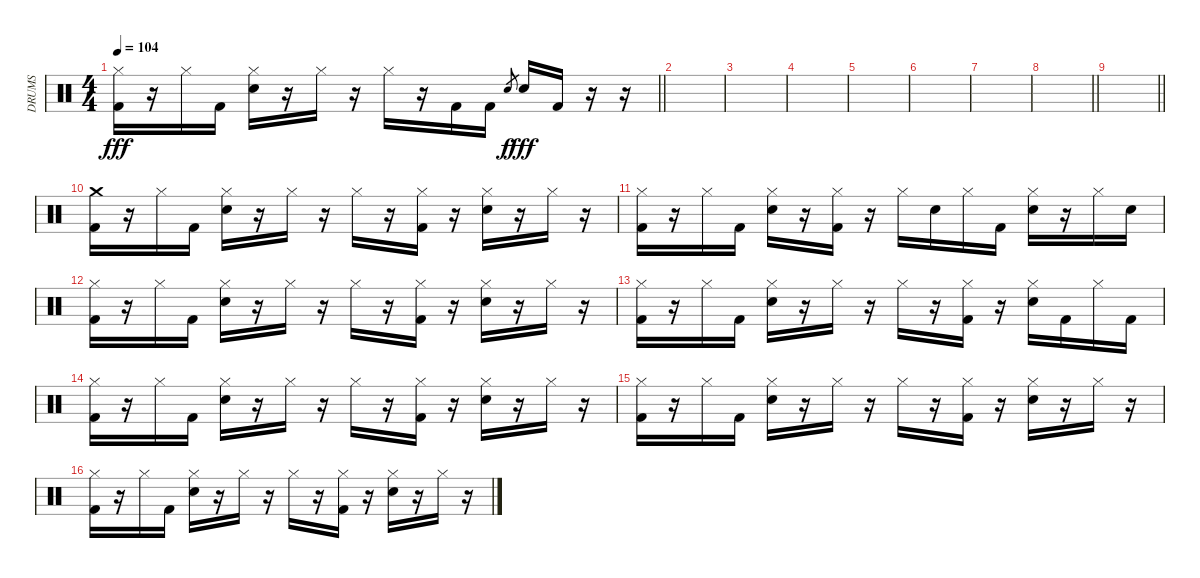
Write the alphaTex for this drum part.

\track ("DRUMS" "DRUMS") {instrument percussion}
\staff {score}
\articulation defaults
\ts (4 4)
\tempo 104
\clef neutral
\barLineRight lightlight
\ks c
("Hi-Hat (closed)" "Kick (hit) 2").16{dy fff} r.16 "Hi-Hat (closed)".16 "Kick (hit) 2".16 ("Hi-Hat (closed)" "Snare (hit) 2").16 r.16 "Hi-Hat (closed)".16 r.16 "Hi-Hat (closed)".16 r.16 "Kick (hit) 2".16 "Kick (hit) 2".16 "Snare (hit) 2".8{gr dy f} "Snare (hit) 2".16{dy fff} "Kick (hit) 2".16 r.16 r.16 |
\section ("" "")
|
|
|
|
|
|
\barLineRight lightlight
|
\barLineRight lightlight
|
\section ("" "")
("Crash medium (hit)" "Kick (hit) 2").16 r.16 "Hi-Hat (closed)".16 "Kick (hit) 2".16 ("Hi-Hat (closed)" "Snare (hit) 2").16 r.16 "Hi-Hat (closed)".16 r.16 "Hi-Hat (closed)".16 r.16 ("Hi-Hat (closed)" "Kick (hit) 2").16 r.16 ("Hi-Hat (closed)" "Snare (hit) 2").16 r.16 "Hi-Hat (closed)".16 r.16 |
("Hi-Hat (closed)" "Kick (hit) 2").16 r.16 "Hi-Hat (closed)".16 "Kick (hit) 2".16 ("Hi-Hat (closed)" "Snare (hit) 2").16 r.16 ("Hi-Hat (closed)" "Kick (hit) 2").16 r.16 "Hi-Hat (closed)".16 "Snare (hit) 2".16 "Hi-Hat (closed)".16 "Kick (hit) 2".16 ("Hi-Hat (closed)" "Snare (hit) 2").16 r.16 "Hi-Hat (closed)".16 "Snare (hit) 2".16 |
("Hi-Hat (closed)" "Kick (hit) 2").16 r.16 "Hi-Hat (closed)".16 "Kick (hit) 2".16 ("Hi-Hat (closed)" "Snare (hit) 2").16 r.16 "Hi-Hat (closed)".16 r.16 "Hi-Hat (closed)".16 r.16 ("Hi-Hat (closed)" "Kick (hit) 2").16 r.16 ("Hi-Hat (closed)" "Snare (hit) 2").16 r.16 "Hi-Hat (closed)".16 r.16 |
("Hi-Hat (closed)" "Kick (hit) 2").16 r.16 "Hi-Hat (closed)".16 "Kick (hit) 2".16 ("Hi-Hat (closed)" "Snare (hit) 2").16 r.16 "Hi-Hat (closed)".16 r.16 "Hi-Hat (closed)".16 r.16 ("Hi-Hat (closed)" "Kick (hit) 2").16 r.16 ("Hi-Hat (closed)" "Snare (hit) 2").16 "Kick (hit) 2".16 "Hi-Hat (closed)".16 "Kick (hit) 2".16 |
("Hi-Hat (closed)" "Kick (hit) 2").16 r.16 "Hi-Hat (closed)".16 "Kick (hit) 2".16 ("Hi-Hat (closed)" "Snare (hit) 2").16 r.16 "Hi-Hat (closed)".16 r.16 "Hi-Hat (closed)".16 r.16 ("Hi-Hat (closed)" "Kick (hit) 2").16 r.16 ("Hi-Hat (closed)" "Snare (hit) 2").16 r.16 "Hi-Hat (closed)".16 r.16 |
("Hi-Hat (closed)" "Kick (hit) 2").16 r.16 "Hi-Hat (closed)".16 "Kick (hit) 2".16 ("Hi-Hat (closed)" "Snare (hit) 2").16 r.16 "Hi-Hat (closed)".16 r.16 "Hi-Hat (closed)".16 r.16 ("Hi-Hat (closed)" "Kick (hit) 2").16 r.16 ("Hi-Hat (closed)" "Snare (hit) 2").16 r.16 "Hi-Hat (closed)".16 r.16 |
("Hi-Hat (closed)" "Kick (hit) 2").16 r.16 "Hi-Hat (closed)".16 "Kick (hit) 2".16 ("Hi-Hat (closed)" "Snare (hit) 2").16 r.16 "Hi-Hat (closed)".16 r.16 "Hi-Hat (closed)".16 r.16 ("Hi-Hat (closed)" "Kick (hit) 2").16 r.16 ("Hi-Hat (closed)" "Snare (hit) 2").16 r.16 "Hi-Hat (closed)".16 r.16
